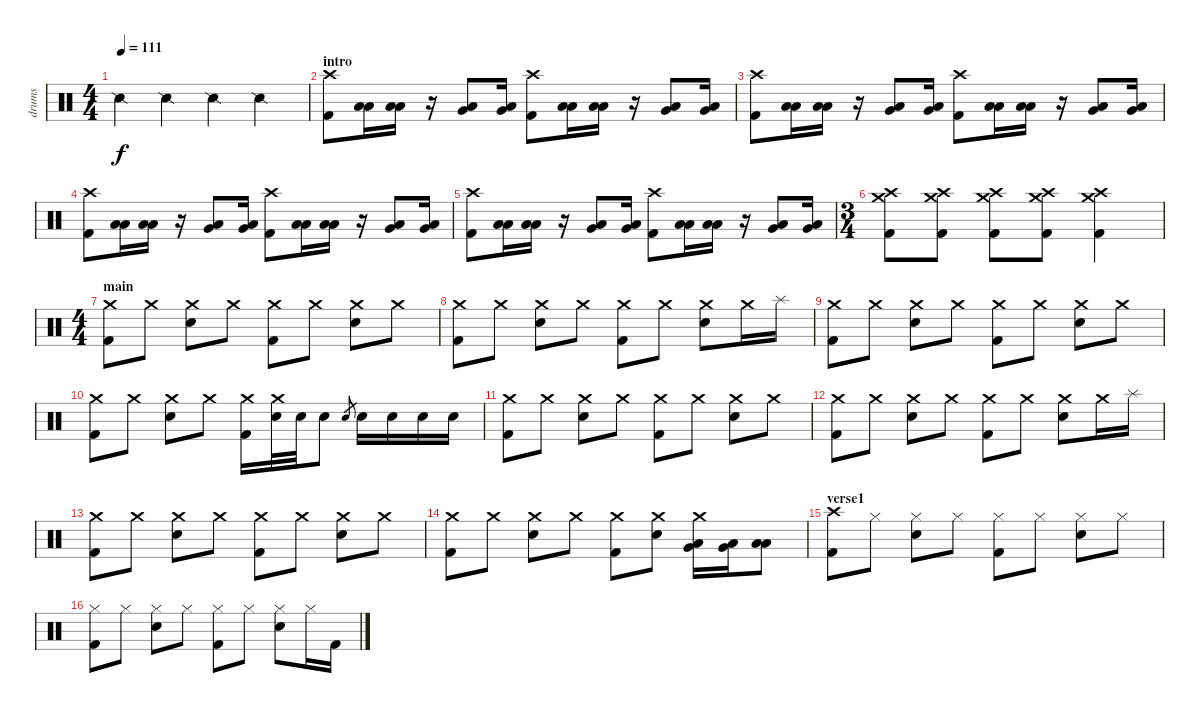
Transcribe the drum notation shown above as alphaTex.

\track ("drums" "drums") {instrument percussion}
\staff {score}
\articulation defaults
\ts (4 4)
\tempo 111
\clef neutral
\ks c "Snare (side stick) 2".4{dy f} "Snare (side stick) 2".4 "Snare (side stick) 2".4 "Snare (side stick) 2".4
|
\section ("" "intro")
("Crash high (hit)" "Kick (hit) 2").8 ("Low Floor Tom (hit)" "Low Tom (hit)").16 ("Low Floor Tom (hit)" "Low Tom (hit)").16 r.16 ("Low Tom (hit)" "Very Low Tom (hit)").8 ("Very Low Tom (hit)" "Low Floor Tom (hit)").16 ("Crash high (hit)" "Kick (hit) 2").8 ("Low Floor Tom (hit)" "Low Tom (hit)").16 ("Low Floor Tom (hit)" "Low Tom (hit)").16 r.16 ("Low Tom (hit)" "Very Low Tom (hit)").8 ("Very Low Tom (hit)" "Low Floor Tom (hit)").16 |
("Crash high (hit)" "Kick (hit) 2").8 ("Low Floor Tom (hit)" "Low Tom (hit)").16 ("Low Floor Tom (hit)" "Low Tom (hit)").16 r.16 ("Low Tom (hit)" "Very Low Tom (hit)").8 ("Very Low Tom (hit)" "Low Floor Tom (hit)").16 ("Crash high (hit)" "Kick (hit) 2").8 ("Low Floor Tom (hit)" "Low Tom (hit)").16 ("Low Floor Tom (hit)" "Low Tom (hit)").16 r.16 ("Low Tom (hit)" "Very Low Tom (hit)").8 ("Very Low Tom (hit)" "Low Floor Tom (hit)").16 |
("Crash high (hit)" "Kick (hit) 2").8 ("Low Floor Tom (hit)" "Low Tom (hit)").16 ("Low Floor Tom (hit)" "Low Tom (hit)").16 r.16 ("Low Tom (hit)" "Very Low Tom (hit)").8 ("Very Low Tom (hit)" "Low Floor Tom (hit)").16 ("Crash high (hit)" "Kick (hit) 2").8 ("Low Floor Tom (hit)" "Low Tom (hit)").16 ("Low Floor Tom (hit)" "Low Tom (hit)").16 r.16 ("Low Tom (hit)" "Very Low Tom (hit)").8 ("Very Low Tom (hit)" "Low Floor Tom (hit)").16 |
("Crash high (hit)" "Kick (hit) 2").8 ("Low Floor Tom (hit)" "Low Tom (hit)").16 ("Low Floor Tom (hit)" "Low Tom (hit)").16 r.16 ("Low Tom (hit)" "Very Low Tom (hit)").8 ("Very Low Tom (hit)" "Low Floor Tom (hit)").16 ("Crash high (hit)" "Kick (hit) 2").8 ("Low Floor Tom (hit)" "Low Tom (hit)").16 ("Low Floor Tom (hit)" "Low Tom (hit)").16 r.16 ("Low Tom (hit)" "Very Low Tom (hit)").8 ("Very Low Tom (hit)" "Low Floor Tom (hit)").16 |
\ts (3 4)
("Crash high (hit)" "Crash medium (hit)" "Kick (hit) 2").8 ("Crash high (hit)" "Crash medium (hit)" "Kick (hit) 2").8 ("Crash high (hit)" "Crash medium (hit)" "Kick (hit) 2").8 ("Crash high (hit)" "Crash medium (hit)" "Kick (hit) 2").8 ("Crash high (hit)" "Crash medium (hit)" "Kick (hit) 2").4 |
\ts (4 4)
\section ("" "main")
("Crash medium (hit)" "Kick (hit) 2").8 "Crash medium (hit)".8 ("Crash medium (hit)" "Electric Snare (hit)").8 "Crash medium (hit)".8 ("Crash medium (hit)" "Kick (hit) 2").8 "Crash medium (hit)".8 ("Crash medium (hit)" "Electric Snare (hit)").8 "Crash medium (hit)".8 |
("Crash medium (hit)" "Kick (hit) 2").8 "Crash medium (hit)".8 ("Crash medium (hit)" "Electric Snare (hit)").8 "Crash medium (hit)".8 ("Crash medium (hit)" "Kick (hit) 2").8 "Crash medium (hit)".8 ("Crash medium (hit)" "Electric Snare (hit)").8 "Crash medium (hit)".16 "Splash (hit)".16 |
("Crash medium (hit)" "Kick (hit) 2").8 "Crash medium (hit)".8 ("Crash medium (hit)" "Electric Snare (hit)").8 "Crash medium (hit)".8 ("Crash medium (hit)" "Kick (hit) 2").8 "Crash medium (hit)".8 ("Crash medium (hit)" "Electric Snare (hit)").8 "Crash medium (hit)".8 |
("Crash medium (hit)" "Kick (hit) 2").8 "Crash medium (hit)".8 ("Crash medium (hit)" "Electric Snare (hit)").8 "Crash medium (hit)".8 ("Crash medium (hit)" "Kick (hit) 2").16 ("Crash medium (hit)" "Electric Snare (hit)").32 "Electric Snare (hit)".32 "Electric Snare (hit)".8 "Electric Snare (hit)".8{gr} "Electric Snare (hit)".16 "Electric Snare (hit)".16 "Electric Snare (hit)".16 "Electric Snare (hit)".16 |
("Crash medium (hit)" "Kick (hit) 2").8 "Crash medium (hit)".8 ("Crash medium (hit)" "Electric Snare (hit)").8 "Crash medium (hit)".8 ("Crash medium (hit)" "Kick (hit) 2").8 "Crash medium (hit)".8 ("Crash medium (hit)" "Electric Snare (hit)").8 "Crash medium (hit)".8 |
("Crash medium (hit)" "Kick (hit) 2").8 "Crash medium (hit)".8 ("Crash medium (hit)" "Electric Snare (hit)").8 "Crash medium (hit)".8 ("Crash medium (hit)" "Kick (hit) 2").8 "Crash medium (hit)".8 ("Crash medium (hit)" "Electric Snare (hit)").8 "Crash medium (hit)".16 "Splash (hit)".16 |
("Crash medium (hit)" "Kick (hit) 2").8 "Crash medium (hit)".8 ("Crash medium (hit)" "Electric Snare (hit)").8 "Crash medium (hit)".8 ("Crash medium (hit)" "Kick (hit) 2").8 "Crash medium (hit)".8 ("Crash medium (hit)" "Electric Snare (hit)").8 "Crash medium (hit)".8 |
("Crash medium (hit)" "Kick (hit) 2").8 "Crash medium (hit)".8 ("Crash medium (hit)" "Electric Snare (hit)").8 "Crash medium (hit)".8 ("Crash medium (hit)" "Kick (hit) 2").8 ("Crash medium (hit)" "Electric Snare (hit)").8 ("Crash medium (hit)" "Very Low Tom (hit)" "Low Tom (hit)").16 ("Low Floor Tom (hit)" "Very Low Tom (hit)").16 ("Low Floor Tom (hit)" "Low Floor Tom (hit)").8 |
\section ("" "verse1")
("Crash high (hit)" "Kick (hit) 2").8 "Hi-Hat (closed)".8 ("Hi-Hat (closed)" "Electric Snare (hit)").8 "Hi-Hat (closed)".8 ("Hi-Hat (closed)" "Kick (hit) 2").8 "Hi-Hat (closed)".8 ("Hi-Hat (closed)" "Electric Snare (hit)").8 "Hi-Hat (closed)".8 |
("Hi-Hat (closed)" "Kick (hit) 2").8 "Hi-Hat (closed)".8 ("Hi-Hat (closed)" "Electric Snare (hit)").8 "Hi-Hat (closed)".8 ("Hi-Hat (closed)" "Kick (hit) 2").8 "Hi-Hat (closed)".8 ("Hi-Hat (closed)" "Electric Snare (hit)").8 "Hi-Hat (closed)".16 "Kick (hit) 2".16
